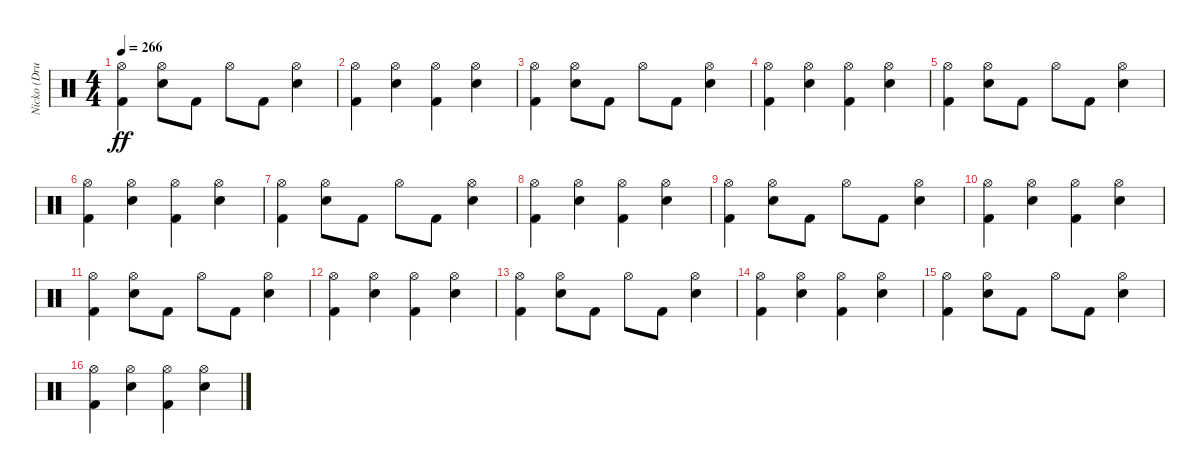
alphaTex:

\track ("Nicko (Drums)" "Nicko (Dru") {instrument percussion}
\staff {score}
\articulation defaults
\ts (4 4)
\tempo 266
\clef neutral
\ks c
("Kick (hit) 2" "Hi-Hat (open)").4{dy ff} ("Snare (hit) 2" "Hi-Hat (open)").8 "Kick (hit) 2".8 "Hi-Hat (open)".8 "Kick (hit) 2".8 ("Snare (hit) 2" "Hi-Hat (open)").4 |
("Kick (hit) 2" "Hi-Hat (open)").4 ("Snare (hit) 2" "Hi-Hat (open)").4 ("Kick (hit) 2" "Hi-Hat (open)").4 ("Snare (hit) 2" "Hi-Hat (open)").4 |
("Kick (hit) 2" "Hi-Hat (open)").4 ("Snare (hit) 2" "Hi-Hat (open)").8 "Kick (hit) 2".8 "Hi-Hat (open)".8 "Kick (hit) 2".8 ("Snare (hit) 2" "Hi-Hat (open)").4 |
("Kick (hit) 2" "Hi-Hat (open)").4 ("Snare (hit) 2" "Hi-Hat (open)").4 ("Kick (hit) 2" "Hi-Hat (open)").4 ("Snare (hit) 2" "Hi-Hat (open)").4 |
("Kick (hit) 2" "Hi-Hat (open)").4 ("Snare (hit) 2" "Hi-Hat (open)").8 "Kick (hit) 2".8 "Hi-Hat (open)".8 "Kick (hit) 2".8 ("Snare (hit) 2" "Hi-Hat (open)").4 |
("Kick (hit) 2" "Hi-Hat (open)").4 ("Snare (hit) 2" "Hi-Hat (open)").4 ("Kick (hit) 2" "Hi-Hat (open)").4 ("Snare (hit) 2" "Hi-Hat (open)").4 |
("Kick (hit) 2" "Hi-Hat (open)").4 ("Snare (hit) 2" "Hi-Hat (open)").8 "Kick (hit) 2".8 "Hi-Hat (open)".8 "Kick (hit) 2".8 ("Snare (hit) 2" "Hi-Hat (open)").4 |
("Kick (hit) 2" "Hi-Hat (open)").4 ("Snare (hit) 2" "Hi-Hat (open)").4 ("Kick (hit) 2" "Hi-Hat (open)").4 ("Snare (hit) 2" "Hi-Hat (open)").4 |
("Kick (hit) 2" "Hi-Hat (open)").4 ("Snare (hit) 2" "Hi-Hat (open)").8 "Kick (hit) 2".8 "Hi-Hat (open)".8 "Kick (hit) 2".8 ("Snare (hit) 2" "Hi-Hat (open)").4 |
("Kick (hit) 2" "Hi-Hat (open)").4 ("Snare (hit) 2" "Hi-Hat (open)").4 ("Kick (hit) 2" "Hi-Hat (open)").4 ("Snare (hit) 2" "Hi-Hat (open)").4 |
("Kick (hit) 2" "Hi-Hat (open)").4 ("Snare (hit) 2" "Hi-Hat (open)").8 "Kick (hit) 2".8 "Hi-Hat (open)".8 "Kick (hit) 2".8 ("Snare (hit) 2" "Hi-Hat (open)").4 |
("Kick (hit) 2" "Hi-Hat (open)").4 ("Snare (hit) 2" "Hi-Hat (open)").4 ("Kick (hit) 2" "Hi-Hat (open)").4 ("Snare (hit) 2" "Hi-Hat (open)").4 |
("Kick (hit) 2" "Hi-Hat (open)").4 ("Snare (hit) 2" "Hi-Hat (open)").8 "Kick (hit) 2".8 "Hi-Hat (open)".8 "Kick (hit) 2".8 ("Snare (hit) 2" "Hi-Hat (open)").4 |
("Kick (hit) 2" "Hi-Hat (open)").4 ("Snare (hit) 2" "Hi-Hat (open)").4 ("Kick (hit) 2" "Hi-Hat (open)").4 ("Snare (hit) 2" "Hi-Hat (open)").4 |
("Kick (hit) 2" "Hi-Hat (open)").4 ("Snare (hit) 2" "Hi-Hat (open)").8 "Kick (hit) 2".8 "Hi-Hat (open)".8 "Kick (hit) 2".8 ("Snare (hit) 2" "Hi-Hat (open)").4 |
("Kick (hit) 2" "Hi-Hat (open)").4 ("Snare (hit) 2" "Hi-Hat (open)").4 ("Kick (hit) 2" "Hi-Hat (open)").4 ("Snare (hit) 2" "Hi-Hat (open)").4
